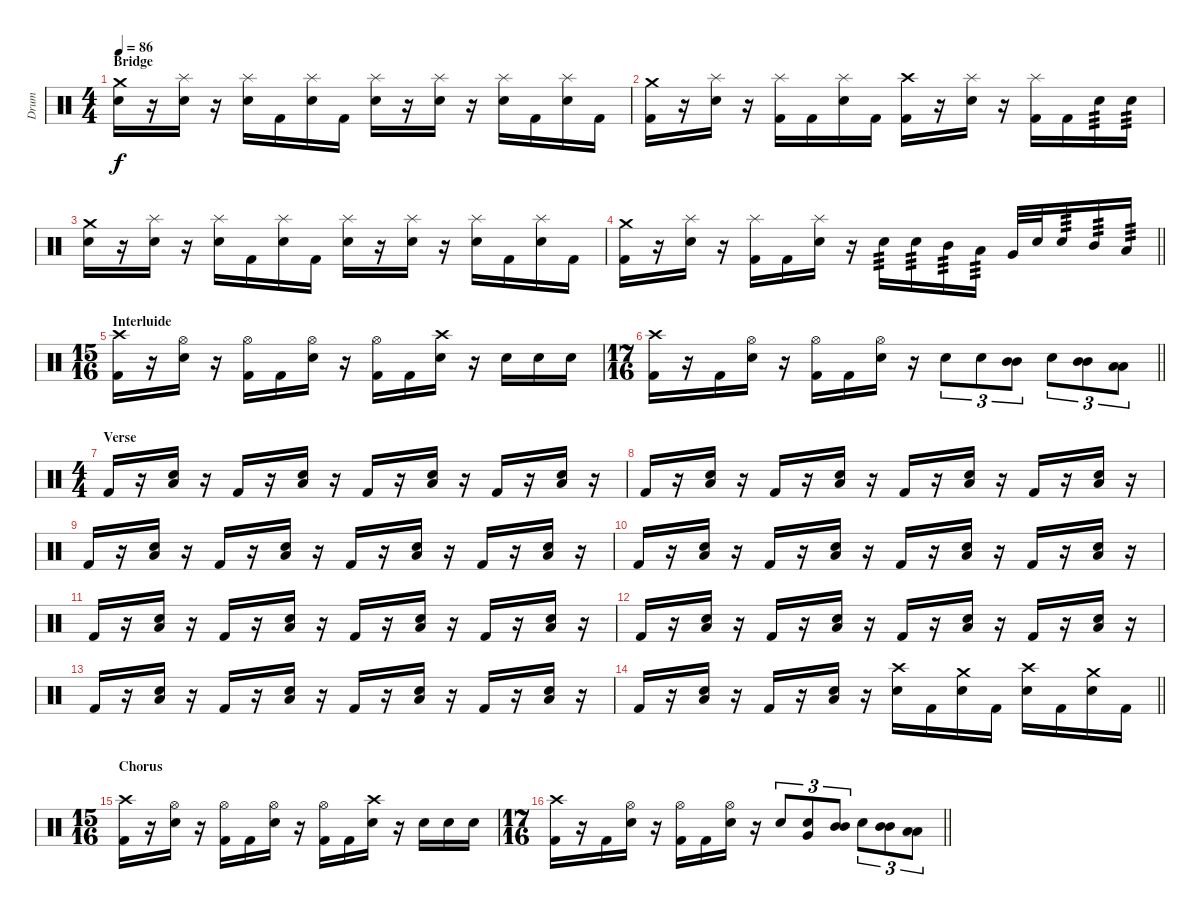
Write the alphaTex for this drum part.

\track ("Drum" "Drum") {instrument percussion}
\staff {score}
\articulation defaults
\ts (4 4)
\section ("" "Bridge")
\tempo 86
\clef neutral
\ks c
("Crash medium (hit)" "Electric Snare (hit)").16{dy f} r.16 ("Splash (hit)" "Electric Snare (hit)").16 r.16 ("Splash (hit)" "Electric Snare (hit)").16 "Kick (hit) 2".16 ("Splash (hit)" "Electric Snare (hit)").16 "Kick (hit) 2".16 ("Splash (hit)" "Electric Snare (hit)").16 r.16 ("Splash (hit)" "Electric Snare (hit)").16 r.16 ("Splash (hit)" "Electric Snare (hit)").16 "Kick (hit) 2".16 ("Splash (hit)" "Electric Snare (hit)").16 "Kick (hit) 2".16 |
("Crash medium (hit)" "Kick (hit) 2").16 r.16 ("Splash (hit)" "Electric Snare (hit)").16 r.16 ("Splash (hit)" "Kick (hit) 2").16 "Kick (hit) 2".16 ("Splash (hit)" "Electric Snare (hit)").16 "Kick (hit) 2".16 ("Crash high (hit)" "Kick (hit) 2").16 r.16 ("Splash (hit)" "Electric Snare (hit)").16 r.16 ("Splash (hit)" "Kick (hit) 2").16 "Kick (hit) 2".16 "Electric Snare (hit)".16{tp 3} "Electric Snare (hit)".16{tp 3} |
("Crash medium (hit)" "Electric Snare (hit)").16 r.16 ("Splash (hit)" "Electric Snare (hit)").16 r.16 ("Splash (hit)" "Electric Snare (hit)").16 "Kick (hit) 2".16 ("Splash (hit)" "Electric Snare (hit)").16 "Kick (hit) 2".16 ("Splash (hit)" "Electric Snare (hit)").16 r.16 ("Splash (hit)" "Electric Snare (hit)").16 r.16 ("Splash (hit)" "Electric Snare (hit)").16 "Kick (hit) 2".16 ("Splash (hit)" "Electric Snare (hit)").16 "Kick (hit) 2".16 |
\barLineRight lightlight
("Crash medium (hit)" "Kick (hit) 2").16 r.16 ("Splash (hit)" "Electric Snare (hit)").16 r.16 ("Splash (hit)" "Kick (hit) 2").16 "Kick (hit) 2".16 ("Splash (hit)" "Electric Snare (hit)").16 r.16 "Electric Snare (hit)".16{tp 3} "Electric Snare (hit)".16{tp 3} "Mid Tom (hit)".16{tp 3} "Low Tom (hit)".16{tp 3} "Very Low Tom (hit)".32 "Electric Snare (hit)".32 "Electric Snare (hit)".16{tp 3} "Mid Tom (hit)".16{tp 3} "Low Tom (hit)".16{tp 3} |
\ts (15 16)
\section ("" "Interluide")
("Crash high (hit)" "Kick (hit) 2").16 r.16 ("Hi-Hat (open)" "Electric Snare (hit)").16 r.16 ("Hi-Hat (open)" "Kick (hit) 2").16 "Kick (hit) 2".16 ("Hi-Hat (open)" "Electric Snare (hit)").16 r.16 ("Hi-Hat (open)" "Kick (hit) 2").16 "Kick (hit) 2".16 ("Crash high (hit)" "Electric Snare (hit)").16 r.16 "Electric Snare (hit)".16 "Electric Snare (hit)".16 "Electric Snare (hit)".16 |
\ts (17 16)
\barLineRight lightlight
("Crash high (hit)" "Kick (hit) 2").16 r.16 "Kick (hit) 2".16 ("Hi-Hat (open)" "Electric Snare (hit)").16 r.16 ("Hi-Hat (open)" "Kick (hit) 2").16 "Kick (hit) 2".16 ("Hi-Hat (open)" "Electric Snare (hit)").16 r.16 "Electric Snare (hit)".8{tu (3 2)} "Electric Snare (hit)".8{tu (3 2)} ("Mid Tom (hit)" "Mid Tom (hit)").8{tu (3 2)} "Electric Snare (hit)".8{tu (3 2)} ("Mid Tom (hit)" "Mid Tom (hit)").8{tu (3 2)} ("Low Tom (hit)" "Low Tom (hit)").8{tu (3 2)} |
\ts (4 4)
\section ("" "Verse")
"Kick (hit) 2".16 r.16 ("Low Floor Tom (hit)" "Electric Snare (hit)").16{bd 60} r.16 "Kick (hit) 2".16 r.16 ("Low Floor Tom (hit)" "Electric Snare (hit)").16{bd 60} r.16 "Kick (hit) 2".16 r.16 ("Low Floor Tom (hit)" "Electric Snare (hit)").16{bd 60} r.16 "Kick (hit) 2".16 r.16 ("Low Floor Tom (hit)" "Electric Snare (hit)").16{bd 60} r.16 |
"Kick (hit) 2".16 r.16 ("Low Floor Tom (hit)" "Electric Snare (hit)").16{bd 60} r.16 "Kick (hit) 2".16 r.16 ("Low Floor Tom (hit)" "Electric Snare (hit)").16{bd 60} r.16 "Kick (hit) 2".16 r.16 ("Low Floor Tom (hit)" "Electric Snare (hit)").16{bd 60} r.16 "Kick (hit) 2".16 r.16 ("Low Floor Tom (hit)" "Electric Snare (hit)").16{bd 60} r.16 |
"Kick (hit) 2".16 r.16 ("Low Floor Tom (hit)" "Electric Snare (hit)").16{bd 60} r.16 "Kick (hit) 2".16 r.16 ("Low Floor Tom (hit)" "Electric Snare (hit)").16{bd 60} r.16 "Kick (hit) 2".16 r.16 ("Low Floor Tom (hit)" "Electric Snare (hit)").16{bd 60} r.16 "Kick (hit) 2".16 r.16 ("Low Floor Tom (hit)" "Electric Snare (hit)").16{bd 60} r.16 |
"Kick (hit) 2".16 r.16 ("Low Floor Tom (hit)" "Electric Snare (hit)").16{bd 60} r.16 "Kick (hit) 2".16 r.16 ("Low Floor Tom (hit)" "Electric Snare (hit)").16{bd 60} r.16 "Kick (hit) 2".16 r.16 ("Low Floor Tom (hit)" "Electric Snare (hit)").16{bd 60} r.16 "Kick (hit) 2".16 r.16 ("Low Floor Tom (hit)" "Electric Snare (hit)").16{bd 60} r.16 |
"Kick (hit) 2".16 r.16 ("Low Floor Tom (hit)" "Electric Snare (hit)").16{bd 60} r.16 "Kick (hit) 2".16 r.16 ("Low Floor Tom (hit)" "Electric Snare (hit)").16{bd 60} r.16 "Kick (hit) 2".16 r.16 ("Low Floor Tom (hit)" "Electric Snare (hit)").16{bd 60} r.16 "Kick (hit) 2".16 r.16 ("Low Floor Tom (hit)" "Electric Snare (hit)").16{bd 60} r.16 |
"Kick (hit) 2".16 r.16 ("Low Floor Tom (hit)" "Electric Snare (hit)").16{bd 60} r.16 "Kick (hit) 2".16 r.16 ("Low Floor Tom (hit)" "Electric Snare (hit)").16{bd 60} r.16 "Kick (hit) 2".16 r.16 ("Low Floor Tom (hit)" "Electric Snare (hit)").16{bd 60} r.16 "Kick (hit) 2".16 r.16 ("Low Floor Tom (hit)" "Electric Snare (hit)").16{bd 60} r.16 |
"Kick (hit) 2".16 r.16 ("Low Floor Tom (hit)" "Electric Snare (hit)").16{bd 60} r.16 "Kick (hit) 2".16 r.16 ("Low Floor Tom (hit)" "Electric Snare (hit)").16{bd 60} r.16 "Kick (hit) 2".16 r.16 ("Low Floor Tom (hit)" "Electric Snare (hit)").16{bd 60} r.16 "Kick (hit) 2".16 r.16 ("Low Floor Tom (hit)" "Electric Snare (hit)").16{bd 60} r.16 |
\barLineRight lightlight "Kick (hit) 2".16
r.16 ("Low Floor Tom (hit)" "Electric Snare (hit)").16{bd 60} r.16 "Kick (hit) 2".16 r.16 ("Low Floor Tom (hit)" "Electric Snare (hit)").16{bd 60} r.16 ("Crash high (hit)" "Electric Snare (hit)").16 "Kick (hit) 2".16 ("Crash medium (hit)" "Electric Snare (hit)").16 "Kick (hit) 2".16 ("Crash high (hit)" "Electric Snare (hit)").16 "Kick (hit) 2".16 ("Crash medium (hit)" "Electric Snare (hit)").16 "Kick (hit) 2".16 |
\ts (15 16)
\section ("" "Chorus")
("Crash high (hit)" "Kick (hit) 2").16 r.16 ("Hi-Hat (open)" "Electric Snare (hit)").16 r.16 ("Hi-Hat (open)" "Kick (hit) 2").16 "Kick (hit) 2".16 ("Hi-Hat (open)" "Electric Snare (hit)").16 r.16 ("Hi-Hat (open)" "Kick (hit) 2").16 "Kick (hit) 2".16 ("Crash high (hit)" "Electric Snare (hit)").16 r.16 "Electric Snare (hit)".16 "Electric Snare (hit)".16 "Electric Snare (hit)".16 |
\ts (17 16)
\barLineRight lightlight
("Crash high (hit)" "Kick (hit) 2").16 r.16 "Kick (hit) 2".16 ("Hi-Hat (open)" "Electric Snare (hit)").16 r.16 ("Hi-Hat (open)" "Kick (hit) 2").16 "Kick (hit) 2".16 ("Hi-Hat (open)" "Electric Snare (hit)").16 r.16 "Electric Snare (hit)".8{tu (3 2)} ("Very Low Tom (hit)" "Electric Snare (hit)").8{tu (3 2)} ("Mid Tom (hit)" "Mid Tom (hit)").8{tu (3 2)} "Electric Snare (hit)".8{tu (3 2)} ("Mid Tom (hit)" "Mid Tom (hit)").8{tu (3 2)} ("Low Tom (hit)" "Low Tom (hit)").8{tu (3 2)}
